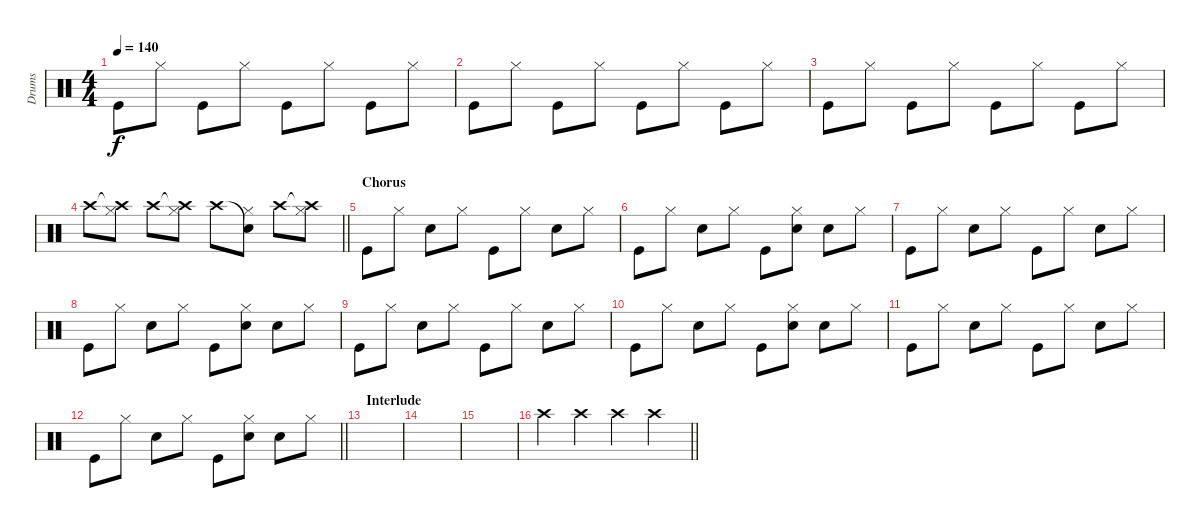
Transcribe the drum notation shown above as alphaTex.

\track ("Drums" "Drums") {instrument percussion}
\staff {score}
\articulation defaults
\ts (4 4)
\tempo 140
\clef neutral
\ks c "Kick (hit)".8{dy f} "Hi-Hat (closed)".8 "Kick (hit)".8 "Hi-Hat (closed)".8 "Kick (hit)".8 "Hi-Hat (closed)".8 "Kick (hit)".8 "Hi-Hat (closed)".8
|
"Kick (hit)".8 "Hi-Hat (closed)".8 "Kick (hit)".8 "Hi-Hat (closed)".8 "Kick (hit)".8 "Hi-Hat (closed)".8 "Kick (hit)".8 "Hi-Hat (closed)".8 |
"Kick (hit)".8 "Hi-Hat (closed)".8 "Kick (hit)".8 "Hi-Hat (closed)".8 "Kick (hit)".8 "Hi-Hat (closed)".8 "Kick (hit)".8 "Hi-Hat (closed)".8 |
\barLineRight lightlight "Crash high (hit)".8
("Crash high (hit)"{t} "Hi-Hat (closed)").8 "Crash high (hit)".8 ("Crash high (hit)"{t} "Hi-Hat (closed)").8 "Crash high (hit)".8 ("Snare (hit)"{t} "Hi-Hat (closed)").8 "Crash high (hit)".8 ("Crash high (hit)"{t} "Hi-Hat (closed)").8 |
\section ("" "Chorus")
"Kick (hit)".8 "Hi-Hat (closed)".8 "Hand Clap (hit)".8 "Hi-Hat (closed)".8 "Kick (hit)".8 "Hi-Hat (closed)".8 "Hand Clap (hit)".8 "Hi-Hat (closed)".8 |
"Kick (hit)".8 "Hi-Hat (closed)".8 "Hand Clap (hit)".8 "Hi-Hat (closed)".8 "Kick (hit)".8 ("Hi-Hat (closed)" "Hand Clap (hit)").8 "Hand Clap (hit)".8 "Hi-Hat (closed)".8 |
"Kick (hit)".8 "Hi-Hat (closed)".8 "Hand Clap (hit)".8 "Hi-Hat (closed)".8 "Kick (hit)".8 "Hi-Hat (closed)".8 "Hand Clap (hit)".8 "Hi-Hat (closed)".8 |
"Kick (hit)".8 "Hi-Hat (closed)".8 "Hand Clap (hit)".8 "Hi-Hat (closed)".8 "Kick (hit)".8 ("Hi-Hat (closed)" "Hand Clap (hit)").8 "Hand Clap (hit)".8 "Hi-Hat (closed)".8 |
"Kick (hit)".8 "Hi-Hat (closed)".8 "Hand Clap (hit)".8 "Hi-Hat (closed)".8 "Kick (hit)".8 "Hi-Hat (closed)".8 "Hand Clap (hit)".8 "Hi-Hat (closed)".8 |
"Kick (hit)".8 "Hi-Hat (closed)".8 "Hand Clap (hit)".8 "Hi-Hat (closed)".8 "Kick (hit)".8 ("Hi-Hat (closed)" "Hand Clap (hit)").8 "Hand Clap (hit)".8 "Hi-Hat (closed)".8 |
"Kick (hit)".8 "Hi-Hat (closed)".8 "Hand Clap (hit)".8 "Hi-Hat (closed)".8 "Kick (hit)".8 "Hi-Hat (closed)".8 "Hand Clap (hit)".8 "Hi-Hat (closed)".8 |
\barLineRight lightlight "Kick (hit)".8 "Hi-Hat (closed)".8 "Hand Clap (hit)".8 "Hi-Hat (closed)".8 "Kick (hit)".8
("Hi-Hat (closed)" "Hand Clap (hit)").8 "Hand Clap (hit)".8 "Hi-Hat (closed)".8 |
\section ("" "Interlude")
|
|
|
\barLineRight lightlight "Crash high (hit)".4 "Crash high (hit)".4 "Crash high (hit)".4 "Crash high (hit)".4
